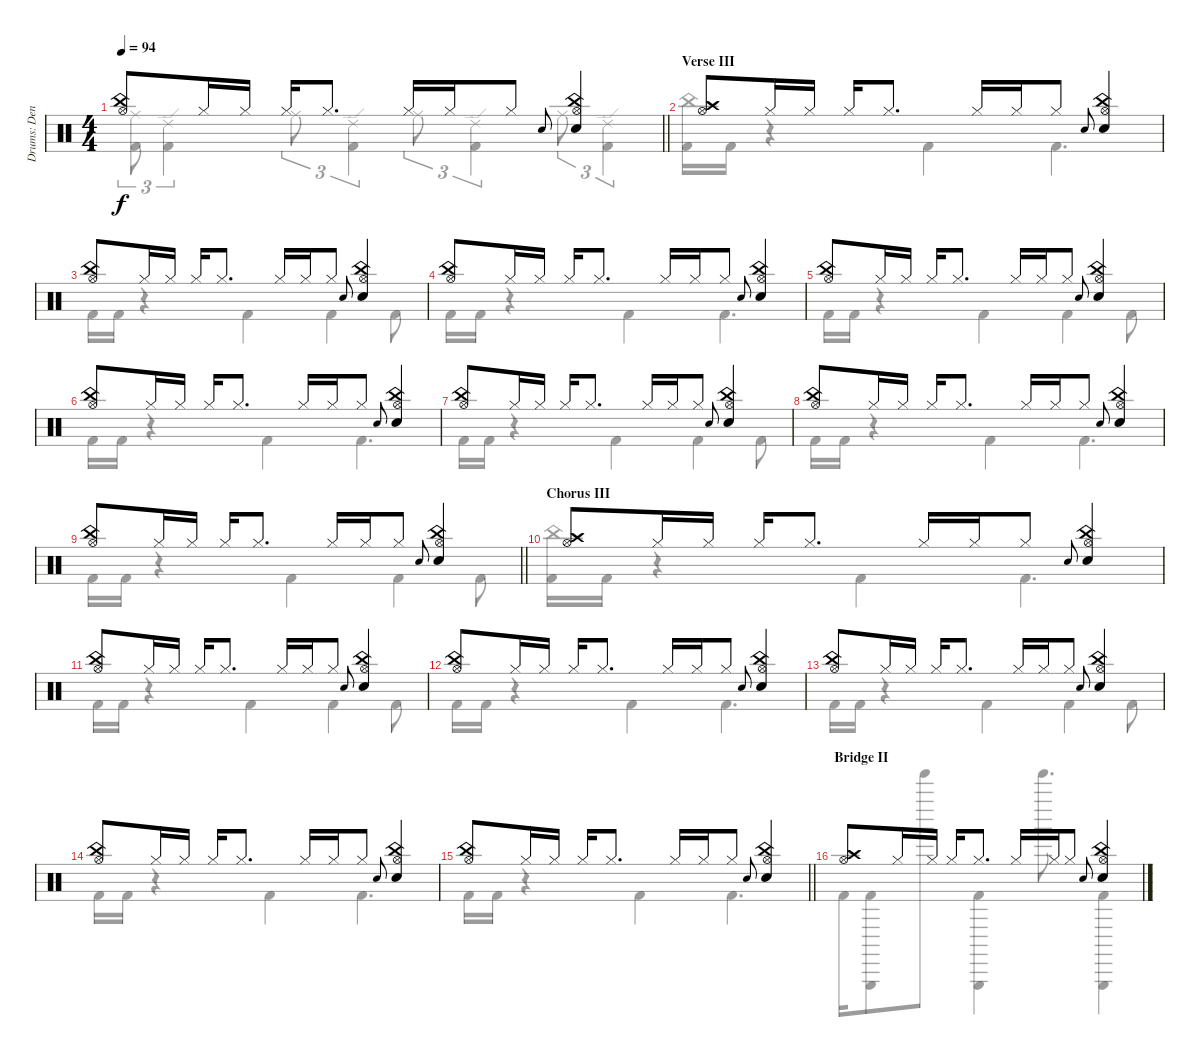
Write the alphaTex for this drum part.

\track ("Drums: Denny" "Drums: Den") {instrument percussion}
\staff {score}
\articulation defaults
\voice
\ts (4 4)
\tempo 94
\clef neutral
\barLineRight lightlight
\ks c
("China (hit)" "Hi-Hat (open)").8{dy f} "Hi-Hat (closed)".16 "Hi-Hat (closed)".16 "Hi-Hat (closed)".16 "Hi-Hat (closed)".8{d} "Hi-Hat (closed)".16 "Hi-Hat (closed)".16 "Hi-Hat (closed)".8 "Electric Snare (hit)".8{gr onbeat} ("China (hit)" "Hi-Hat (open)" "Snare (hit) 2").4 |
\section ("" "Verse III")
("Crash high (hit)" "Hi-Hat (open)").8 "Hi-Hat (closed)".16 "Hi-Hat (closed)".16 "Hi-Hat (closed)".16 "Hi-Hat (closed)".8{d} "Hi-Hat (closed)".16 "Hi-Hat (closed)".16 "Hi-Hat (closed)".8 "Electric Snare (hit)".8{gr onbeat} ("China (hit)" "Hi-Hat (open)" "Snare (hit) 2").4 |
("China (hit)" "Hi-Hat (open)").8 "Hi-Hat (closed)".16 "Hi-Hat (closed)".16 "Hi-Hat (closed)".16 "Hi-Hat (closed)".8{d} "Hi-Hat (closed)".16 "Hi-Hat (closed)".16 "Hi-Hat (closed)".8 "Electric Snare (hit)".8{gr onbeat} ("China (hit)" "Hi-Hat (open)" "Snare (hit) 2").4 |
("China (hit)" "Hi-Hat (open)").8 "Hi-Hat (closed)".16 "Hi-Hat (closed)".16 "Hi-Hat (closed)".16 "Hi-Hat (closed)".8{d} "Hi-Hat (closed)".16 "Hi-Hat (closed)".16 "Hi-Hat (closed)".8 "Electric Snare (hit)".8{gr onbeat} ("China (hit)" "Hi-Hat (open)" "Snare (hit) 2").4 |
("China (hit)" "Hi-Hat (open)").8 "Hi-Hat (closed)".16 "Hi-Hat (closed)".16 "Hi-Hat (closed)".16 "Hi-Hat (closed)".8{d} "Hi-Hat (closed)".16 "Hi-Hat (closed)".16 "Hi-Hat (closed)".8 "Electric Snare (hit)".8{gr onbeat} ("China (hit)" "Hi-Hat (open)" "Snare (hit) 2").4 |
("China (hit)" "Hi-Hat (open)").8 "Hi-Hat (closed)".16 "Hi-Hat (closed)".16 "Hi-Hat (closed)".16 "Hi-Hat (closed)".8{d} "Hi-Hat (closed)".16 "Hi-Hat (closed)".16 "Hi-Hat (closed)".8 "Electric Snare (hit)".8{gr onbeat} ("China (hit)" "Hi-Hat (open)" "Snare (hit) 2").4 |
("China (hit)" "Hi-Hat (open)").8 "Hi-Hat (closed)".16 "Hi-Hat (closed)".16 "Hi-Hat (closed)".16 "Hi-Hat (closed)".8{d} "Hi-Hat (closed)".16 "Hi-Hat (closed)".16 "Hi-Hat (closed)".8 "Electric Snare (hit)".8{gr onbeat} ("China (hit)" "Hi-Hat (open)" "Snare (hit) 2").4 |
("China (hit)" "Hi-Hat (open)").8 "Hi-Hat (closed)".16 "Hi-Hat (closed)".16 "Hi-Hat (closed)".16 "Hi-Hat (closed)".8{d} "Hi-Hat (closed)".16 "Hi-Hat (closed)".16 "Hi-Hat (closed)".8 "Electric Snare (hit)".8{gr onbeat} ("China (hit)" "Hi-Hat (open)" "Snare (hit) 2").4 |
\barLineRight lightlight
("China (hit)" "Hi-Hat (open)").8 "Hi-Hat (closed)".16 "Hi-Hat (closed)".16 "Hi-Hat (closed)".16 "Hi-Hat (closed)".8{d} "Hi-Hat (closed)".16 "Hi-Hat (closed)".16 "Hi-Hat (closed)".8 "Electric Snare (hit)".8{gr onbeat} ("China (hit)" "Hi-Hat (open)" "Snare (hit) 2").4 |
\section ("" "Chorus III")
("Crash high (hit)" "Hi-Hat (open)").8 "Hi-Hat (closed)".16 "Hi-Hat (closed)".16 "Hi-Hat (closed)".16 "Hi-Hat (closed)".8{d} "Hi-Hat (closed)".16 "Hi-Hat (closed)".16 "Hi-Hat (closed)".8 "Electric Snare (hit)".8{gr onbeat} ("China (hit)" "Hi-Hat (open)" "Snare (hit) 2").4 |
("China (hit)" "Hi-Hat (open)").8 "Hi-Hat (closed)".16 "Hi-Hat (closed)".16 "Hi-Hat (closed)".16 "Hi-Hat (closed)".8{d} "Hi-Hat (closed)".16 "Hi-Hat (closed)".16 "Hi-Hat (closed)".8 "Electric Snare (hit)".8{gr onbeat} ("China (hit)" "Hi-Hat (open)" "Snare (hit) 2").4 |
("China (hit)" "Hi-Hat (open)").8 "Hi-Hat (closed)".16 "Hi-Hat (closed)".16 "Hi-Hat (closed)".16 "Hi-Hat (closed)".8{d} "Hi-Hat (closed)".16 "Hi-Hat (closed)".16 "Hi-Hat (closed)".8 "Electric Snare (hit)".8{gr onbeat} ("China (hit)" "Hi-Hat (open)" "Snare (hit) 2").4 |
("China (hit)" "Hi-Hat (open)").8 "Hi-Hat (closed)".16 "Hi-Hat (closed)".16 "Hi-Hat (closed)".16 "Hi-Hat (closed)".8{d} "Hi-Hat (closed)".16 "Hi-Hat (closed)".16 "Hi-Hat (closed)".8 "Electric Snare (hit)".8{gr onbeat} ("China (hit)" "Hi-Hat (open)" "Snare (hit) 2").4 |
("China (hit)" "Hi-Hat (open)").8 "Hi-Hat (closed)".16 "Hi-Hat (closed)".16 "Hi-Hat (closed)".16 "Hi-Hat (closed)".8{d} "Hi-Hat (closed)".16 "Hi-Hat (closed)".16 "Hi-Hat (closed)".8 "Electric Snare (hit)".8{gr onbeat} ("China (hit)" "Hi-Hat (open)" "Snare (hit) 2").4 |
\barLineRight lightlight
("China (hit)" "Hi-Hat (open)").8 "Hi-Hat (closed)".16 "Hi-Hat (closed)".16 "Hi-Hat (closed)".16 "Hi-Hat (closed)".8{d} "Hi-Hat (closed)".16 "Hi-Hat (closed)".16 "Hi-Hat (closed)".8 "Electric Snare (hit)".8{gr onbeat} ("China (hit)" "Hi-Hat (open)" "Snare (hit) 2").4 |
\section ("" "Bridge II")
("Crash high (hit)" "Hi-Hat (open)").8 "Hi-Hat (closed)".16 "Hi-Hat (closed)".16 "Hi-Hat (closed)".16 "Hi-Hat (closed)".8{d} "Hi-Hat (closed)".16 "Hi-Hat (closed)".16 "Hi-Hat (closed)".8 "Electric Snare (hit)".8{gr onbeat} ("China (hit)" "Hi-Hat (open)" "Snare (hit) 2").4
\voice
\clef neutral
\ottava regular
\simile none
\barLineRight lightlight
\ks c
("Ride (middle)" "Kick (hit) 2").8{tu (3 2) dy f} ("Ride (edge) 2" "Kick (hit) 2").4{tu (3 2)} "Ride (middle)".8{tu (3 2)} ("Ride (edge) 2" "Kick (hit) 2").4{tu (3 2)} "Ride (middle)".8{tu (3 2)} ("Ride (edge) 2" "Kick (hit) 2").4{tu (3 2)} "Ride (middle)".8{tu (3 2)} ("Ride (edge) 2" "Kick (hit) 2").4{tu (3 2)} |
("China (hit)" "Kick (hit) 2").16 "Kick (hit) 2".16 r.4 "Kick (hit) 2".4 "Kick (hit) 2".4{d} |
"Kick (hit) 2".16 "Kick (hit) 2".16 r.4 "Kick (hit) 2".4 "Kick (hit) 2".4 "Kick (hit) 2".8 |
"Kick (hit) 2".16 "Kick (hit) 2".16 r.4 "Kick (hit) 2".4 "Kick (hit) 2".4{d} |
"Kick (hit) 2".16 "Kick (hit) 2".16 r.4 "Kick (hit) 2".4 "Kick (hit) 2".4 "Kick (hit) 2".8 |
"Kick (hit) 2".16 "Kick (hit) 2".16 r.4 "Kick (hit) 2".4 "Kick (hit) 2".4{d} |
"Kick (hit) 2".16 "Kick (hit) 2".16 r.4 "Kick (hit) 2".4 "Kick (hit) 2".4 "Kick (hit) 2".8 |
"Kick (hit) 2".16 "Kick (hit) 2".16 r.4 "Kick (hit) 2".4 "Kick (hit) 2".4{d} |
\barLineRight lightlight "Kick (hit) 2".16 "Kick (hit) 2".16
r.4 "Kick (hit) 2".4 "Kick (hit) 2".4 "Kick (hit) 2".8 |
("China (hit)" "Kick (hit) 2").16 "Kick (hit) 2".16 r.4 "Kick (hit) 2".4 "Kick (hit) 2".4{d} |
"Kick (hit) 2".16 "Kick (hit) 2".16 r.4 "Kick (hit) 2".4 "Kick (hit) 2".4 "Kick (hit) 2".8 |
"Kick (hit) 2".16 "Kick (hit) 2".16 r.4 "Kick (hit) 2".4 "Kick (hit) 2".4{d} |
"Kick (hit) 2".16 "Kick (hit) 2".16 r.4 "Kick (hit) 2".4 "Kick (hit) 2".4 "Kick (hit) 2".8 |
"Kick (hit) 2".16 "Kick (hit) 2".16 r.4 "Kick (hit) 2".4 "Kick (hit) 2".4{d} |
\barLineRight lightlight "Kick (hit) 2".16 "Kick (hit) 2".16
r.4 "Kick (hit) 2".4 "Kick (hit) 2".4{d} |
"Kick (hit) 2".16 ("Kick (hit) 2" "Triangle (hit)").8 "Tinkle Bell (hit)".8 ("Kick (hit) 2" "Triangle (hit)").4 "Tinkle Bell (hit)".8{d} ("Kick (hit) 2" "Triangle (hit)").4
